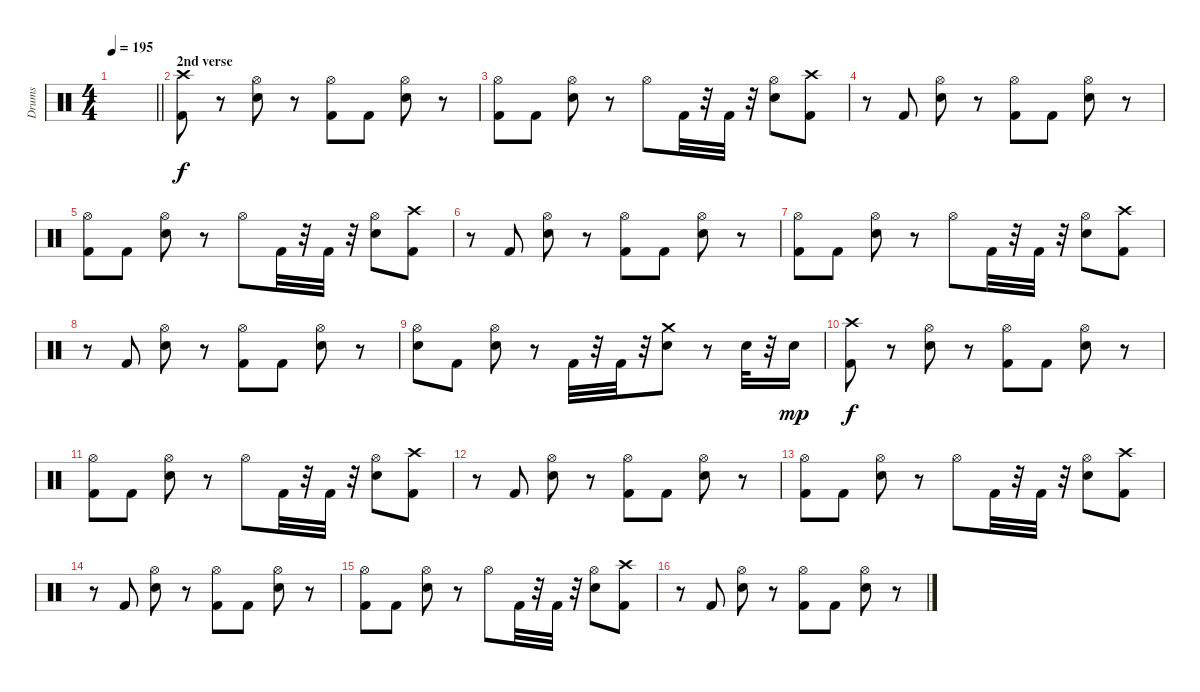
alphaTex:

\track ("Drums" "Drums") {instrument percussion}
\staff {score}
\articulation defaults
\ts (4 4)
\tempo 195
\clef neutral
\barLineRight lightlight
\ks c
|
\section ("" "2nd verse")
("Kick (hit) 2" "Crash high (hit)").8 r.8 ("Electric Snare (hit)" "Hi-Hat (open)").8 r.8 ("Kick (hit) 2" "Hi-Hat (open)").8 "Kick (hit) 2".8 ("Electric Snare (hit)" "Hi-Hat (open)").8 r.8 |
("Kick (hit) 2" "Hi-Hat (open)").8 "Kick (hit) 2".8 ("Electric Snare (hit)" "Hi-Hat (open)").8 r.8 "Hi-Hat (open)".8 "Kick (hit) 2".32 r.32 "Kick (hit) 2".32 r.32 ("Electric Snare (hit)" "Hi-Hat (open)").8 ("Kick (hit) 2" "Crash high (hit)").8 |
r.8 "Kick (hit) 2".8 ("Electric Snare (hit)" "Hi-Hat (open)").8 r.8 ("Kick (hit) 2" "Hi-Hat (open)").8 "Kick (hit) 2".8 ("Electric Snare (hit)" "Hi-Hat (open)").8 r.8 |
("Kick (hit) 2" "Hi-Hat (open)").8 "Kick (hit) 2".8 ("Electric Snare (hit)" "Hi-Hat (open)").8 r.8 "Hi-Hat (open)".8 "Kick (hit) 2".32 r.32 "Kick (hit) 2".32 r.32 ("Electric Snare (hit)" "Hi-Hat (open)").8 ("Kick (hit) 2" "Crash high (hit)").8 |
r.8 "Kick (hit) 2".8 ("Electric Snare (hit)" "Hi-Hat (open)").8 r.8 ("Kick (hit) 2" "Hi-Hat (open)").8 "Kick (hit) 2".8 ("Electric Snare (hit)" "Hi-Hat (open)").8 r.8 |
("Kick (hit) 2" "Hi-Hat (open)").8 "Kick (hit) 2".8 ("Electric Snare (hit)" "Hi-Hat (open)").8 r.8 "Hi-Hat (open)".8 "Kick (hit) 2".32 r.32 "Kick (hit) 2".32 r.32 ("Electric Snare (hit)" "Hi-Hat (open)").8 ("Kick (hit) 2" "Crash high (hit)").8 |
r.8 "Kick (hit) 2".8 ("Electric Snare (hit)" "Hi-Hat (open)").8 r.8 ("Kick (hit) 2" "Hi-Hat (open)").8 "Kick (hit) 2".8 ("Electric Snare (hit)" "Hi-Hat (open)").8 r.8 |
("Hi-Hat (open)" "Electric Snare (hit)").8 "Kick (hit) 2".8 ("Electric Snare (hit)" "Hi-Hat (open)").8 r.8 "Kick (hit) 2".32 r.32 "Kick (hit) 2".32 r.32 ("Electric Snare (hit)" "Crash medium (hit)").8 r.8 "Electric Snare (hit)".32 r.32 "Electric Snare (hit)".16{dy mp} |
("Kick (hit) 2" "Crash high (hit)").8{dy f} r.8 ("Electric Snare (hit)" "Hi-Hat (open)").8 r.8 ("Kick (hit) 2" "Hi-Hat (open)").8 "Kick (hit) 2".8 ("Electric Snare (hit)" "Hi-Hat (open)").8 r.8 |
("Kick (hit) 2" "Hi-Hat (open)").8 "Kick (hit) 2".8 ("Electric Snare (hit)" "Hi-Hat (open)").8 r.8 "Hi-Hat (open)".8 "Kick (hit) 2".32 r.32 "Kick (hit) 2".32 r.32 ("Electric Snare (hit)" "Hi-Hat (open)").8 ("Kick (hit) 2" "Crash high (hit)").8 |
r.8 "Kick (hit) 2".8 ("Electric Snare (hit)" "Hi-Hat (open)").8 r.8 ("Kick (hit) 2" "Hi-Hat (open)").8 "Kick (hit) 2".8 ("Electric Snare (hit)" "Hi-Hat (open)").8 r.8 |
("Kick (hit) 2" "Hi-Hat (open)").8 "Kick (hit) 2".8 ("Electric Snare (hit)" "Hi-Hat (open)").8 r.8 "Hi-Hat (open)".8 "Kick (hit) 2".32 r.32 "Kick (hit) 2".32 r.32 ("Electric Snare (hit)" "Hi-Hat (open)").8 ("Kick (hit) 2" "Crash high (hit)").8 |
r.8 "Kick (hit) 2".8 ("Electric Snare (hit)" "Hi-Hat (open)").8 r.8 ("Kick (hit) 2" "Hi-Hat (open)").8 "Kick (hit) 2".8 ("Electric Snare (hit)" "Hi-Hat (open)").8 r.8 |
("Kick (hit) 2" "Hi-Hat (open)").8 "Kick (hit) 2".8 ("Electric Snare (hit)" "Hi-Hat (open)").8 r.8 "Hi-Hat (open)".8 "Kick (hit) 2".32 r.32 "Kick (hit) 2".32 r.32 ("Electric Snare (hit)" "Hi-Hat (open)").8 ("Kick (hit) 2" "Crash high (hit)").8 |
r.8 "Kick (hit) 2".8 ("Electric Snare (hit)" "Hi-Hat (open)").8 r.8 ("Kick (hit) 2" "Hi-Hat (open)").8 "Kick (hit) 2".8 ("Electric Snare (hit)" "Hi-Hat (open)").8 r.8
